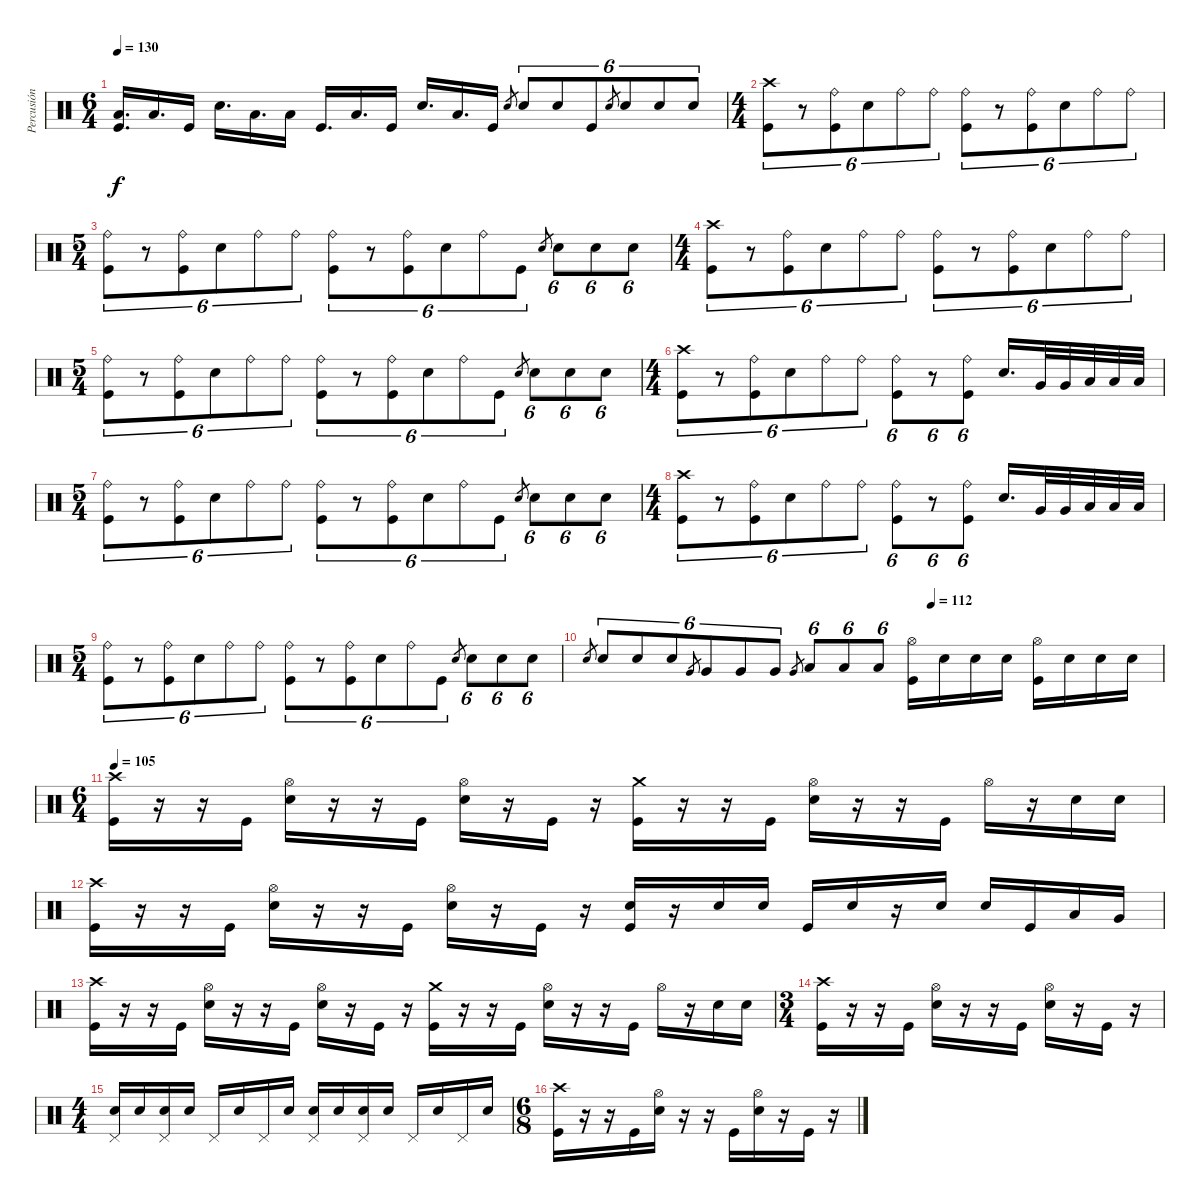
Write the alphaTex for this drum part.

\track ("Percusión" "Percusión") {instrument percussion}
\staff {score}
\articulation defaults
\ts (6 4)
\tempo 130
\clef neutral
\ks c
("Low Floor Tom (hit)" "Kick (hit)").16{d dy f} "Low Floor Tom (hit)".16{d} "Kick (hit)".16 "Snare (hit) 2".16{d} "Low Floor Tom (hit)".16{d} "Low Floor Tom (hit)".16 "Kick (hit)".16{d} "Low Floor Tom (hit)".16{d} "Kick (hit)".16 "Snare (hit) 2".16{d} "Low Floor Tom (hit)".16{d} "Kick (hit)".16 "Snare (hit) 2".8{gr} "Snare (hit) 2".8{tu (6 4)} "Snare (hit) 2".8{tu (6 4)} "Kick (hit)".8{tu (6 4)} "Snare (hit) 2".8{gr} "Snare (hit) 2".8{tu (6 4)} "Snare (hit) 2".8{tu (6 4)} "Snare (hit) 2".8{tu (6 4)} |
\ts (4 4)
("Crash high (hit)" "Kick (hit)").8{tu (6 4)} r.8{tu (6 4)} ("Ride (bell)" "Kick (hit)").8{tu (6 4)} "Snare (hit) 2".8{tu (6 4)} "Ride (bell)".8{tu (6 4)} "Ride (bell)".8{tu (6 4)} ("Ride (bell)" "Kick (hit)").8{tu (6 4)} r.8{tu (6 4)} ("Ride (bell)" "Kick (hit)").8{tu (6 4)} "Snare (hit) 2".8{tu (6 4)} "Ride (bell)".8{tu (6 4)} "Ride (bell)".8{tu (6 4)} |
\ts (5 4)
("Ride (bell)" "Kick (hit)").8{tu (6 4)} r.8{tu (6 4)} ("Ride (bell)" "Kick (hit)").8{tu (6 4)} "Snare (hit) 2".8{tu (6 4)} "Ride (bell)".8{tu (6 4)} "Ride (bell)".8{tu (6 4)} ("Ride (bell)" "Kick (hit)").8{tu (6 4)} r.8{tu (6 4)} ("Ride (bell)" "Kick (hit)").8{tu (6 4)} "Snare (hit) 2".8{tu (6 4)} "Ride (bell)".8{tu (6 4)} "Kick (hit)".8{tu (6 4)} "Snare (hit) 2".8{gr} "Snare (hit) 2".8{tu (6 4)} "Snare (hit) 2".8{tu (6 4)} "Snare (hit) 2".8{tu (6 4)} |
\ts (4 4)
("Crash high (hit)" "Kick (hit)").8{tu (6 4)} r.8{tu (6 4)} ("Ride (bell)" "Kick (hit)").8{tu (6 4)} "Snare (hit) 2".8{tu (6 4)} "Ride (bell)".8{tu (6 4)} "Ride (bell)".8{tu (6 4)} ("Ride (bell)" "Kick (hit)").8{tu (6 4)} r.8{tu (6 4)} ("Ride (bell)" "Kick (hit)").8{tu (6 4)} "Snare (hit) 2".8{tu (6 4)} "Ride (bell)".8{tu (6 4)} "Ride (bell)".8{tu (6 4)} |
\ts (5 4)
("Ride (bell)" "Kick (hit)").8{tu (6 4)} r.8{tu (6 4)} ("Ride (bell)" "Kick (hit)").8{tu (6 4)} "Snare (hit) 2".8{tu (6 4)} "Ride (bell)".8{tu (6 4)} "Ride (bell)".8{tu (6 4)} ("Ride (bell)" "Kick (hit)").8{tu (6 4)} r.8{tu (6 4)} ("Ride (bell)" "Kick (hit)").8{tu (6 4)} "Snare (hit) 2".8{tu (6 4)} "Ride (bell)".8{tu (6 4)} "Kick (hit)".8{tu (6 4)} "Snare (hit) 2".8{gr} "Snare (hit) 2".8{tu (6 4)} "Snare (hit) 2".8{tu (6 4)} "Snare (hit) 2".8{tu (6 4)} |
\ts (4 4)
("Crash high (hit)" "Kick (hit)").8{tu (6 4)} r.8{tu (6 4)} ("Ride (bell)" "Kick (hit)").8{tu (6 4)} "Snare (hit) 2".8{tu (6 4)} "Ride (bell)".8{tu (6 4)} "Ride (bell)".8{tu (6 4)} ("Ride (bell)" "Kick (hit)").8{tu (6 4)} r.8{tu (6 4)} ("Ride (bell)" "Kick (hit)").8{tu (6 4)} "Snare (hit) 2".16{d} "Very Low Tom (hit)".32 "Very Low Tom (hit)".32 "Low Floor Tom (hit)".32 "Low Floor Tom (hit)".32 "Low Floor Tom (hit)".32 |
\ts (5 4)
("Ride (bell)" "Kick (hit)").8{tu (6 4)} r.8{tu (6 4)} ("Ride (bell)" "Kick (hit)").8{tu (6 4)} "Snare (hit) 2".8{tu (6 4)} "Ride (bell)".8{tu (6 4)} "Ride (bell)".8{tu (6 4)} ("Ride (bell)" "Kick (hit)").8{tu (6 4)} r.8{tu (6 4)} ("Ride (bell)" "Kick (hit)").8{tu (6 4)} "Snare (hit) 2".8{tu (6 4)} "Ride (bell)".8{tu (6 4)} "Kick (hit)".8{tu (6 4)} "Snare (hit) 2".8{gr} "Snare (hit) 2".8{tu (6 4)} "Snare (hit) 2".8{tu (6 4)} "Snare (hit) 2".8{tu (6 4)} |
\ts (4 4)
("Crash high (hit)" "Kick (hit)").8{tu (6 4)} r.8{tu (6 4)} ("Ride (bell)" "Kick (hit)").8{tu (6 4)} "Snare (hit) 2".8{tu (6 4)} "Ride (bell)".8{tu (6 4)} "Ride (bell)".8{tu (6 4)} ("Ride (bell)" "Kick (hit)").8{tu (6 4)} r.8{tu (6 4)} ("Ride (bell)" "Kick (hit)").8{tu (6 4)} "Snare (hit) 2".16{d} "Very Low Tom (hit)".32 "Very Low Tom (hit)".32 "Low Floor Tom (hit)".32 "Low Floor Tom (hit)".32 "Low Floor Tom (hit)".32 |
\ts (5 4)
("Ride (bell)" "Kick (hit)").8{tu (6 4)} r.8{tu (6 4)} ("Ride (bell)" "Kick (hit)").8{tu (6 4)} "Snare (hit) 2".8{tu (6 4)} "Ride (bell)".8{tu (6 4)} "Ride (bell)".8{tu (6 4)} ("Ride (bell)" "Kick (hit)").8{tu (6 4)} r.8{tu (6 4)} ("Ride (bell)" "Kick (hit)").8{tu (6 4)} "Snare (hit) 2".8{tu (6 4)} "Ride (bell)".8{tu (6 4)} "Kick (hit)".8{tu (6 4)} "Snare (hit) 2".8{gr} "Snare (hit) 2".8{tu (6 4)} "Snare (hit) 2".8{tu (6 4)} "Snare (hit) 2".8{tu (6 4)} |
\tempo (112 0.6)
"Snare (hit) 2".8{gr} "Snare (hit) 2".8{tu (6 4)} "Snare (hit) 2".8{tu (6 4)} "Snare (hit) 2".8{tu (6 4)} "Very Low Tom (hit)".8{gr} "Very Low Tom (hit)".8{tu (6 4)} "Very Low Tom (hit)".8{tu (6 4)} "Very Low Tom (hit)".8{tu (6 4)} "Very Low Tom (hit)".8{gr} "Low Floor Tom (hit)".8{tu (6 4)} "Low Floor Tom (hit)".8{tu (6 4)} "Low Floor Tom (hit)".8{tu (6 4)} ("Hi-Hat (open)" "Kick (hit)").16 "Snare (hit) 2".16 "Snare (hit) 2".16 "Snare (hit) 2".16 ("Hi-Hat (open)" "Kick (hit)").16 "Snare (hit) 2".16 "Snare (hit) 2".16 "Snare (hit) 2".16 |
\ts (6 4)
\tempo 105
("Crash high (hit)" "Kick (hit)").16 r.16 r.16 "Kick (hit)".16 ("Hi-Hat (open)" "Snare (hit) 2").16 r.16 r.16 "Kick (hit)".16 ("Hi-Hat (open)" "Snare (hit) 2").16 r.16 "Kick (hit)".16 r.16 ("Crash medium (hit)" "Kick (hit)").16 r.16 r.16 "Kick (hit)".16 ("Hi-Hat (open)" "Snare (hit) 2").16 r.16 r.16 "Kick (hit)".16 "Hi-Hat (open)".16 r.16 "Snare (hit) 2".16 "Snare (hit) 2".16 |
("Crash high (hit)" "Kick (hit)").16 r.16 r.16 "Kick (hit)".16 ("Hi-Hat (open)" "Snare (hit) 2").16 r.16 r.16 "Kick (hit)".16 ("Hi-Hat (open)" "Snare (hit) 2").16 r.16 "Kick (hit)".16 r.16 ("Snare (hit) 2" "Kick (hit)").16 r.16 "Snare (hit) 2".16 "Snare (hit) 2".16 "Kick (hit)".16 "Snare (hit) 2".16 r.16 "Snare (hit) 2".16 "Snare (hit) 2".16 "Kick (hit)".16 "Low Tom (hit)".16 "Very Low Tom (hit)".16 |
("Crash high (hit)" "Kick (hit)").16 r.16 r.16 "Kick (hit)".16 ("Hi-Hat (open)" "Snare (hit) 2").16 r.16 r.16 "Kick (hit)".16 ("Hi-Hat (open)" "Snare (hit) 2").16 r.16 "Kick (hit)".16 r.16 ("Crash medium (hit)" "Kick (hit)").16 r.16 r.16 "Kick (hit)".16 ("Hi-Hat (open)" "Snare (hit) 2").16 r.16 r.16 "Kick (hit)".16 "Hi-Hat (open)".16 r.16 "Snare (hit) 2".16 "Snare (hit) 2".16 |
\ts (3 4)
("Crash high (hit)" "Kick (hit)").16 r.16 r.16 "Kick (hit)".16 ("Hi-Hat (open)" "Snare (hit) 2").16 r.16 r.16 "Kick (hit)".16 ("Hi-Hat (open)" "Snare (hit) 2").16 r.16 "Kick (hit)".16 r.16 |
\ts (4 4)
("Pedal Hi-Hat (hit)" "Snare (hit) 2").16 "Snare (hit) 2".16 ("Pedal Hi-Hat (hit)" "Snare (hit) 2").16 "Snare (hit) 2".16 "Pedal Hi-Hat (hit)".16 "Snare (hit) 2".16 "Pedal Hi-Hat (hit)".16 "Snare (hit) 2".16 ("Pedal Hi-Hat (hit)" "Snare (hit) 2").16 "Snare (hit) 2".16 ("Pedal Hi-Hat (hit)" "Snare (hit) 2").16 "Snare (hit) 2".16 "Pedal Hi-Hat (hit)".16 "Snare (hit) 2".16 "Pedal Hi-Hat (hit)".16 "Snare (hit) 2".16 |
\ts (6 8)
("Crash high (hit)" "Kick (hit)").16 r.16 r.16 "Kick (hit)".16 ("Hi-Hat (open)" "Snare (hit) 2").16 r.16 r.16 "Kick (hit)".16 ("Hi-Hat (open)" "Snare (hit) 2").16 r.16 "Kick (hit)".16 r.16
